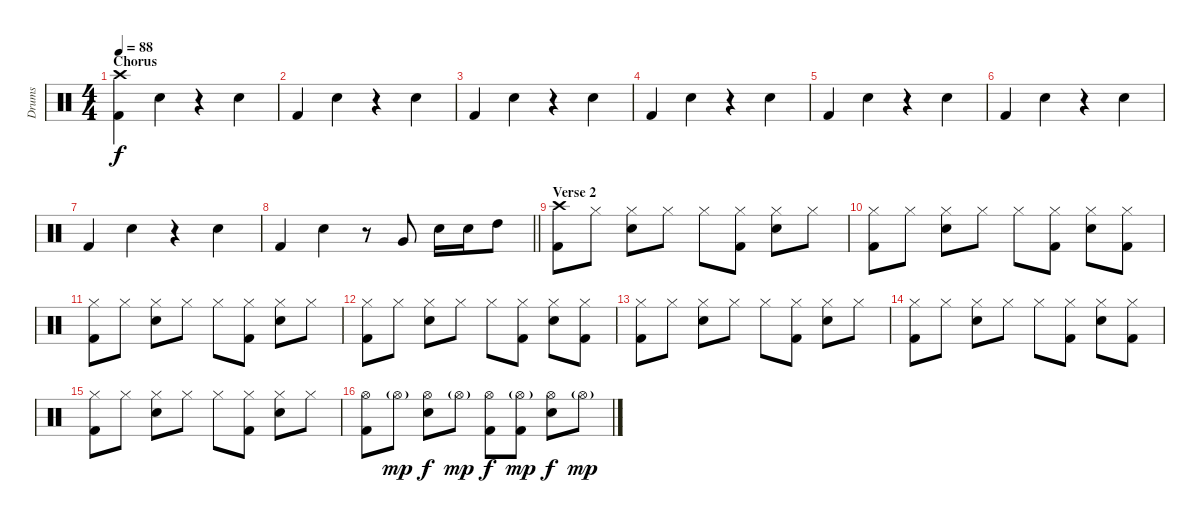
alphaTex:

\track ("Drums" "Drums") {instrument percussion}
\staff {score}
\articulation defaults
\ts (4 4)
\section ("" "Chorus")
\tempo 88
\clef neutral
\ks c
("Kick (hit) 2" "Crash high (hit)").4{dy f} "Electric Snare (hit)".4 r.4 "Electric Snare (hit)".4 |
"Kick (hit) 2".4 "Electric Snare (hit)".4 r.4 "Electric Snare (hit)".4 |
"Kick (hit) 2".4 "Electric Snare (hit)".4 r.4 "Electric Snare (hit)".4 |
"Kick (hit) 2".4 "Electric Snare (hit)".4 r.4 "Electric Snare (hit)".4 |
"Kick (hit) 2".4 "Electric Snare (hit)".4 r.4 "Electric Snare (hit)".4 |
"Kick (hit) 2".4 "Electric Snare (hit)".4 r.4 "Electric Snare (hit)".4 |
"Kick (hit) 2".4 "Electric Snare (hit)".4 r.4 "Electric Snare (hit)".4 |
\barLineRight lightlight "Kick (hit) 2".4 "Electric Snare (hit)".4
r.8 "Very Low Tom (hit)".8 "Electric Snare (hit)".16 "Electric Snare (hit)".16 "High Tom (hit)".8 |
\section ("" "Verse 2")
("Kick (hit) 2" "Crash high (hit)").8 "Hi-Hat (closed)".8 ("Electric Snare (hit)" "Hi-Hat (closed)").8 "Hi-Hat (closed)".8 "Hi-Hat (closed)".8 ("Kick (hit) 2" "Hi-Hat (closed)").8 ("Electric Snare (hit)" "Hi-Hat (closed)").8 "Hi-Hat (closed)".8 |
("Kick (hit) 2" "Hi-Hat (closed)").8 "Hi-Hat (closed)".8 ("Electric Snare (hit)" "Hi-Hat (closed)").8 "Hi-Hat (closed)".8 "Hi-Hat (closed)".8 ("Kick (hit) 2" "Hi-Hat (closed)").8 ("Electric Snare (hit)" "Hi-Hat (closed)").8 ("Kick (hit) 2" "Hi-Hat (closed)").8 |
("Kick (hit) 2" "Hi-Hat (closed)").8 "Hi-Hat (closed)".8 ("Electric Snare (hit)" "Hi-Hat (closed)").8 "Hi-Hat (closed)".8 "Hi-Hat (closed)".8 ("Kick (hit) 2" "Hi-Hat (closed)").8 ("Electric Snare (hit)" "Hi-Hat (closed)").8 "Hi-Hat (closed)".8 |
("Kick (hit) 2" "Hi-Hat (closed)").8 "Hi-Hat (closed)".8 ("Electric Snare (hit)" "Hi-Hat (closed)").8 "Hi-Hat (closed)".8 "Hi-Hat (closed)".8 ("Kick (hit) 2" "Hi-Hat (closed)").8 ("Electric Snare (hit)" "Hi-Hat (closed)").8 ("Kick (hit) 2" "Hi-Hat (closed)").8 |
("Kick (hit) 2" "Hi-Hat (closed)").8 "Hi-Hat (closed)".8 ("Electric Snare (hit)" "Hi-Hat (closed)").8 "Hi-Hat (closed)".8 "Hi-Hat (closed)".8 ("Kick (hit) 2" "Hi-Hat (closed)").8 ("Electric Snare (hit)" "Hi-Hat (closed)").8 "Hi-Hat (closed)".8 |
("Kick (hit) 2" "Hi-Hat (closed)").8 "Hi-Hat (closed)".8 ("Electric Snare (hit)" "Hi-Hat (closed)").8 "Hi-Hat (closed)".8 "Hi-Hat (closed)".8 ("Kick (hit) 2" "Hi-Hat (closed)").8 ("Electric Snare (hit)" "Hi-Hat (closed)").8 ("Kick (hit) 2" "Hi-Hat (closed)").8 |
("Kick (hit) 2" "Hi-Hat (closed)").8 "Hi-Hat (closed)".8 ("Electric Snare (hit)" "Hi-Hat (closed)").8 "Hi-Hat (closed)".8 "Hi-Hat (closed)".8 ("Kick (hit) 2" "Hi-Hat (closed)").8 ("Electric Snare (hit)" "Hi-Hat (closed)").8 "Hi-Hat (closed)".8 |
("Kick (hit) 2" "Hi-Hat (open)").8 "Hi-Hat (open)"{g}.8{dy mp} ("Electric Snare (hit)" "Hi-Hat (open)").8{dy f} "Hi-Hat (open)"{g}.8{dy mp} ("Kick (hit) 2" "Hi-Hat (open)").8{dy f} ("Kick (hit) 2" "Hi-Hat (open)"{g}).8{dy mp} ("Electric Snare (hit)" "Hi-Hat (open)").8{dy f} "Hi-Hat (open)"{g}.8{dy mp}
